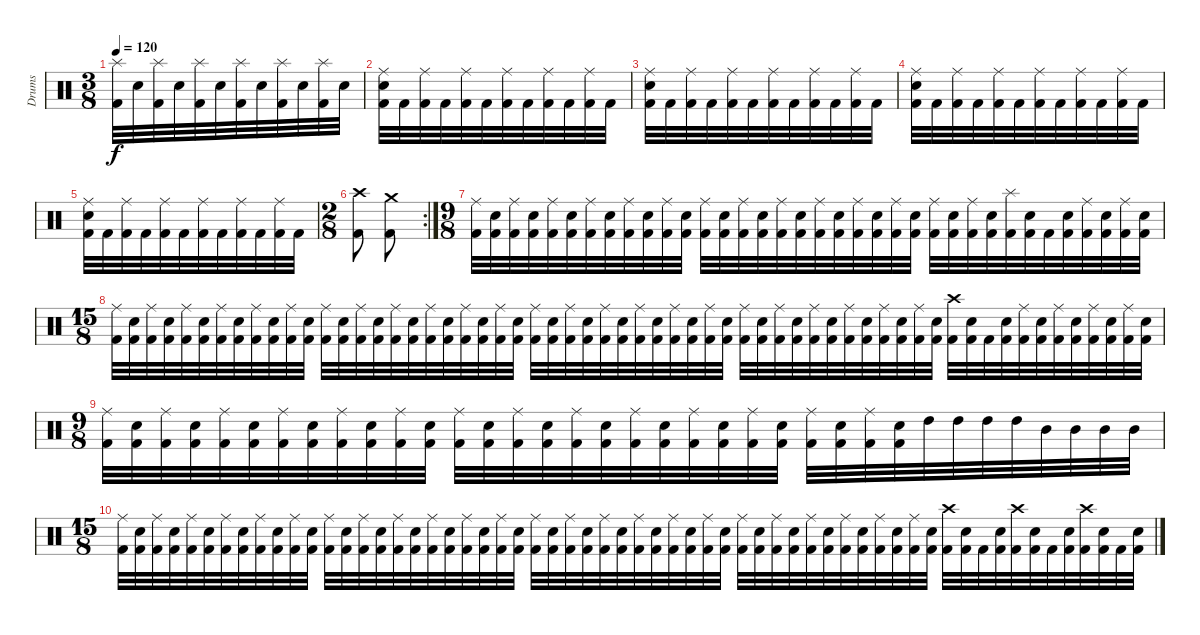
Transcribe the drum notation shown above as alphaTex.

\track ("Drums" "Drums") {instrument percussion}
\staff {score}
\articulation defaults
\ts (3 8)
\tempo 120
\clef neutral
\ks c
("Splash (hit)" "Kick (hit) 2").32{dy f} "Snare (hit) 2".32 ("Splash (hit)" "Kick (hit) 2").32 "Snare (hit) 2".32 ("Splash (hit)" "Kick (hit) 2").32 "Snare (hit) 2".32 ("Splash (hit)" "Kick (hit) 2").32 "Snare (hit) 2".32 ("Splash (hit)" "Kick (hit) 2").32 "Snare (hit) 2".32 ("Splash (hit)" "Kick (hit) 2").32 "Snare (hit) 2".32 |
("Ride (middle)" "Snare (hit) 2" "Kick (hit) 2").32 "Kick (hit) 2".32 ("Ride (middle)" "Kick (hit) 2").32 "Kick (hit) 2".32 ("Ride (middle)" "Kick (hit) 2").32 "Kick (hit) 2".32 ("Ride (middle)" "Kick (hit) 2").32 "Kick (hit) 2".32 ("Ride (middle)" "Kick (hit) 2").32 "Kick (hit) 2".32 ("Ride (middle)" "Kick (hit) 2").32 "Kick (hit) 2".32 |
("Ride (middle)" "Snare (hit) 2" "Kick (hit) 2").32 "Kick (hit) 2".32 ("Ride (middle)" "Kick (hit) 2").32 "Kick (hit) 2".32 ("Ride (middle)" "Kick (hit) 2").32 "Kick (hit) 2".32 ("Ride (middle)" "Kick (hit) 2").32 "Kick (hit) 2".32 ("Ride (middle)" "Kick (hit) 2").32 "Kick (hit) 2".32 ("Ride (middle)" "Kick (hit) 2").32 "Kick (hit) 2".32 |
("Ride (middle)" "Snare (hit) 2" "Kick (hit) 2").32 "Kick (hit) 2".32 ("Ride (middle)" "Kick (hit) 2").32 "Kick (hit) 2".32 ("Ride (middle)" "Kick (hit) 2").32 "Kick (hit) 2".32 ("Ride (middle)" "Kick (hit) 2").32 "Kick (hit) 2".32 ("Ride (middle)" "Kick (hit) 2").32 "Kick (hit) 2".32 ("Ride (middle)" "Kick (hit) 2").32 "Kick (hit) 2".32 |
("Ride (middle)" "Snare (hit) 2" "Kick (hit) 2").32 "Kick (hit) 2".32 ("Ride (middle)" "Kick (hit) 2").32 "Kick (hit) 2".32 ("Ride (middle)" "Kick (hit) 2").32 "Kick (hit) 2".32 ("Ride (middle)" "Kick (hit) 2").32 "Kick (hit) 2".32 ("Ride (middle)" "Kick (hit) 2").32 "Kick (hit) 2".32 ("Ride (middle)" "Kick (hit) 2").32 "Kick (hit) 2".32 |
\rc 2
\ts (2 8)
("Crash high (hit)" "Kick (hit) 2").8 ("Crash medium (hit)" "Kick (hit) 2").8 |
\ts (9 8)
("Ride (middle)" "Kick (hit) 2").32 ("Snare (hit) 2" "Kick (hit) 2").32 ("Ride (middle)" "Kick (hit) 2").32 ("Snare (hit) 2" "Kick (hit) 2").32 ("Ride (middle)" "Kick (hit) 2").32 ("Snare (hit) 2" "Kick (hit) 2").32 ("Ride (middle)" "Kick (hit) 2").32 ("Snare (hit) 2" "Kick (hit) 2").32 ("Ride (middle)" "Kick (hit) 2").32 ("Snare (hit) 2" "Kick (hit) 2").32 ("Ride (middle)" "Kick (hit) 2").32 ("Snare (hit) 2" "Kick (hit) 2").32 ("Ride (middle)" "Kick (hit) 2").32 ("Snare (hit) 2" "Kick (hit) 2").32 ("Ride (middle)" "Kick (hit) 2").32 ("Snare (hit) 2" "Kick (hit) 2").32 ("Ride (middle)" "Kick (hit) 2").32 ("Snare (hit) 2" "Kick (hit) 2").32 ("Ride (middle)" "Kick (hit) 2").32 ("Snare (hit) 2" "Kick (hit) 2").32 ("Ride (middle)" "Kick (hit) 2").32 ("Snare (hit) 2" "Kick (hit) 2").32 ("Ride (middle)" "Kick (hit) 2").32 ("Snare (hit) 2" "Kick (hit) 2").32 ("Ride (middle)" "Kick (hit) 2").32 ("Snare (hit) 2" "Kick (hit) 2").32 ("Ride (middle)" "Kick (hit) 2").32 ("Snare (hit) 2" "Kick (hit) 2").32 ("Splash (hit)" "Kick (hit) 2").32 ("Snare (hit) 2" "Kick (hit) 2").32 "Kick (hit) 2".32 ("Snare (hit) 2" "Kick (hit) 2").32 ("Ride (middle)" "Kick (hit) 2").32 ("Snare (hit) 2" "Kick (hit) 2").32 ("Ride (middle)" "Kick (hit) 2").32 ("Snare (hit) 2" "Kick (hit) 2").32 |
\ts (15 8)
("Ride (middle)" "Kick (hit) 2").32 ("Snare (hit) 2" "Kick (hit) 2").32 ("Ride (middle)" "Kick (hit) 2").32 ("Snare (hit) 2" "Kick (hit) 2").32 ("Ride (middle)" "Kick (hit) 2").32 ("Snare (hit) 2" "Kick (hit) 2").32 ("Ride (middle)" "Kick (hit) 2").32 ("Snare (hit) 2" "Kick (hit) 2").32 ("Ride (middle)" "Kick (hit) 2").32 ("Snare (hit) 2" "Kick (hit) 2").32 ("Ride (middle)" "Kick (hit) 2").32 ("Snare (hit) 2" "Kick (hit) 2").32 ("Ride (middle)" "Kick (hit) 2").32 ("Snare (hit) 2" "Kick (hit) 2").32 ("Ride (middle)" "Kick (hit) 2").32 ("Snare (hit) 2" "Kick (hit) 2").32 ("Ride (middle)" "Kick (hit) 2").32 ("Snare (hit) 2" "Kick (hit) 2").32 ("Ride (middle)" "Kick (hit) 2").32 ("Snare (hit) 2" "Kick (hit) 2").32 ("Ride (middle)" "Kick (hit) 2").32 ("Snare (hit) 2" "Kick (hit) 2").32 ("Ride (middle)" "Kick (hit) 2").32 ("Snare (hit) 2" "Kick (hit) 2").32 ("Ride (middle)" "Kick (hit) 2").32 ("Snare (hit) 2" "Kick (hit) 2").32 ("Ride (middle)" "Kick (hit) 2").32 ("Snare (hit) 2" "Kick (hit) 2").32 ("Ride (middle)" "Kick (hit) 2").32 ("Snare (hit) 2" "Kick (hit) 2").32 ("Ride (middle)" "Kick (hit) 2").32 ("Snare (hit) 2" "Kick (hit) 2").32 ("Ride (middle)" "Kick (hit) 2").32 ("Snare (hit) 2" "Kick (hit) 2").32 ("Ride (middle)" "Kick (hit) 2").32 ("Snare (hit) 2" "Kick (hit) 2").32 ("Ride (middle)" "Kick (hit) 2").32 ("Snare (hit) 2" "Kick (hit) 2").32 ("Ride (middle)" "Kick (hit) 2").32 ("Snare (hit) 2" "Kick (hit) 2").32 ("Ride (middle)" "Kick (hit) 2").32 ("Snare (hit) 2" "Kick (hit) 2").32 ("Ride (middle)" "Kick (hit) 2").32 ("Snare (hit) 2" "Kick (hit) 2").32 ("Ride (middle)" "Kick (hit) 2").32 ("Snare (hit) 2" "Kick (hit) 2").32 ("Ride (middle)" "Kick (hit) 2").32 ("Snare (hit) 2" "Kick (hit) 2").32 ("Crash high (hit)" "Kick (hit) 2").32 ("Snare (hit) 2" "Kick (hit) 2").32 "Kick (hit) 2".32 ("Snare (hit) 2" "Kick (hit) 2").32 ("Ride (middle)" "Kick (hit) 2").32 ("Snare (hit) 2" "Kick (hit) 2").32 ("Ride (middle)" "Kick (hit) 2").32 ("Snare (hit) 2" "Kick (hit) 2").32 ("Ride (middle)" "Kick (hit) 2").32 ("Snare (hit) 2" "Kick (hit) 2").32 ("Ride (middle)" "Kick (hit) 2").32 ("Snare (hit) 2" "Kick (hit) 2").32 |
\ts (9 8)
("Ride (middle)" "Kick (hit) 2").32 ("Snare (hit) 2" "Kick (hit) 2").32 ("Ride (middle)" "Kick (hit) 2").32 ("Snare (hit) 2" "Kick (hit) 2").32 ("Ride (middle)" "Kick (hit) 2").32 ("Snare (hit) 2" "Kick (hit) 2").32 ("Ride (middle)" "Kick (hit) 2").32 ("Snare (hit) 2" "Kick (hit) 2").32 ("Ride (middle)" "Kick (hit) 2").32 ("Snare (hit) 2" "Kick (hit) 2").32 ("Ride (middle)" "Kick (hit) 2").32 ("Snare (hit) 2" "Kick (hit) 2").32 ("Ride (middle)" "Kick (hit) 2").32 ("Snare (hit) 2" "Kick (hit) 2").32 ("Ride (middle)" "Kick (hit) 2").32 ("Snare (hit) 2" "Kick (hit) 2").32 ("Ride (middle)" "Kick (hit) 2").32 ("Snare (hit) 2" "Kick (hit) 2").32 ("Ride (middle)" "Kick (hit) 2").32 ("Snare (hit) 2" "Kick (hit) 2").32 ("Ride (middle)" "Kick (hit) 2").32 ("Snare (hit) 2" "Kick (hit) 2").32 ("Ride (middle)" "Kick (hit) 2").32 ("Snare (hit) 2" "Kick (hit) 2").32 ("Ride (middle)" "Kick (hit) 2").32 ("Snare (hit) 2" "Kick (hit) 2").32 ("Ride (middle)" "Kick (hit) 2").32 ("Snare (hit) 2" "Kick (hit) 2").32 "High Tom (hit)".32 "High Tom (hit)".32 "High Tom (hit)".32 "High Tom (hit)".32 "Mid Tom (hit)".32 "Mid Tom (hit)".32 "Mid Tom (hit)".32 "Mid Tom (hit)".32 |
\ts (15 8)
("Ride (middle)" "Kick (hit) 2").32 ("Snare (hit) 2" "Kick (hit) 2").32 ("Ride (middle)" "Kick (hit) 2").32 ("Snare (hit) 2" "Kick (hit) 2").32 ("Ride (middle)" "Kick (hit) 2").32 ("Snare (hit) 2" "Kick (hit) 2").32 ("Ride (middle)" "Kick (hit) 2").32 ("Snare (hit) 2" "Kick (hit) 2").32 ("Ride (middle)" "Kick (hit) 2").32 ("Snare (hit) 2" "Kick (hit) 2").32 ("Ride (middle)" "Kick (hit) 2").32 ("Snare (hit) 2" "Kick (hit) 2").32 ("Ride (middle)" "Kick (hit) 2").32 ("Snare (hit) 2" "Kick (hit) 2").32 ("Ride (middle)" "Kick (hit) 2").32 ("Snare (hit) 2" "Kick (hit) 2").32 ("Ride (middle)" "Kick (hit) 2").32 ("Snare (hit) 2" "Kick (hit) 2").32 ("Ride (middle)" "Kick (hit) 2").32 ("Snare (hit) 2" "Kick (hit) 2").32 ("Ride (middle)" "Kick (hit) 2").32 ("Snare (hit) 2" "Kick (hit) 2").32 ("Ride (middle)" "Kick (hit) 2").32 ("Snare (hit) 2" "Kick (hit) 2").32 ("Ride (middle)" "Kick (hit) 2").32 ("Snare (hit) 2" "Kick (hit) 2").32 ("Ride (middle)" "Kick (hit) 2").32 ("Snare (hit) 2" "Kick (hit) 2").32 ("Ride (middle)" "Kick (hit) 2").32 ("Snare (hit) 2" "Kick (hit) 2").32 ("Ride (middle)" "Kick (hit) 2").32 ("Snare (hit) 2" "Kick (hit) 2").32 ("Ride (middle)" "Kick (hit) 2").32 ("Snare (hit) 2" "Kick (hit) 2").32 ("Ride (middle)" "Kick (hit) 2").32 ("Snare (hit) 2" "Kick (hit) 2").32 ("Ride (middle)" "Kick (hit) 2").32 ("Snare (hit) 2" "Kick (hit) 2").32 ("Ride (middle)" "Kick (hit) 2").32 ("Snare (hit) 2" "Kick (hit) 2").32 ("Ride (middle)" "Kick (hit) 2").32 ("Snare (hit) 2" "Kick (hit) 2").32 ("Ride (middle)" "Kick (hit) 2").32 ("Snare (hit) 2" "Kick (hit) 2").32 ("Ride (middle)" "Kick (hit) 2").32 ("Snare (hit) 2" "Kick (hit) 2").32 ("Ride (middle)" "Kick (hit) 2").32 ("Snare (hit) 2" "Kick (hit) 2").32 ("Crash high (hit)" "Kick (hit) 2").32 ("Snare (hit) 2" "Kick (hit) 2").32 "Kick (hit) 2".32 ("Snare (hit) 2" "Kick (hit) 2").32 ("Crash high (hit)" "Kick (hit) 2").32 ("Snare (hit) 2" "Kick (hit) 2").32 "Kick (hit) 2".32 ("Snare (hit) 2" "Kick (hit) 2").32 ("Crash high (hit)" "Kick (hit) 2").32 ("Snare (hit) 2" "Kick (hit) 2").32 "Kick (hit) 2".32 ("Snare (hit) 2" "Kick (hit) 2").32
